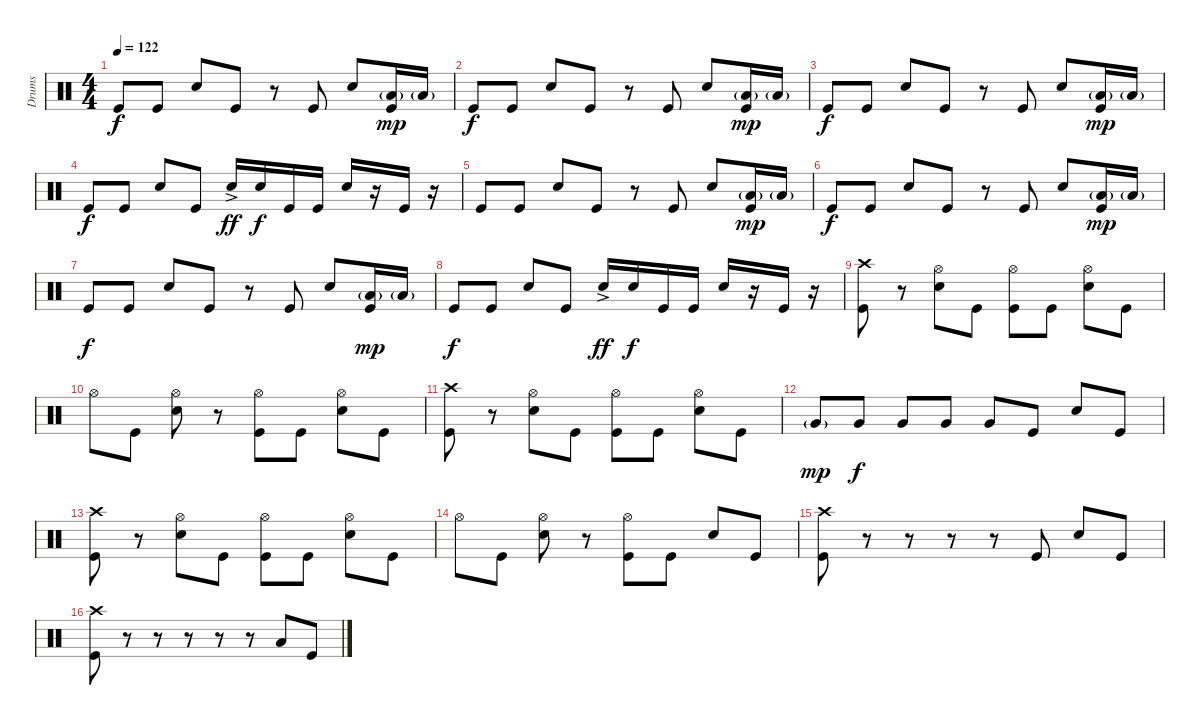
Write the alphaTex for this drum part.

\track ("Drums" "Drums") {instrument percussion}
\staff {score}
\articulation defaults
\ts (4 4)
\tempo 122
\clef neutral
\ks c "Kick (hit)".8{dy f} "Kick (hit)".8 "Snare (hit) 2".8 "Kick (hit)".8
r.8 "Kick (hit)".8 "Snare (hit) 2".8 ("Low Tom (hit)"{g} "Kick (hit)").16{dy mp} "Low Tom (hit)"{g}.16 |
"Kick (hit)".8{dy f} "Kick (hit)".8 "Snare (hit) 2".8 "Kick (hit)".8 r.8 "Kick (hit)".8 "Snare (hit) 2".8 ("Low Tom (hit)"{g} "Kick (hit)").16{dy mp} "Low Tom (hit)"{g}.16 |
"Kick (hit)".8{dy f} "Kick (hit)".8 "Snare (hit) 2".8 "Kick (hit)".8 r.8 "Kick (hit)".8 "Snare (hit) 2".8 ("Low Tom (hit)"{g} "Kick (hit)").16{dy mp} "Low Tom (hit)"{g}.16 |
"Kick (hit)".8{dy f} "Kick (hit)".8 "Snare (hit) 2".8 "Kick (hit)".8 "Snare (hit) 2"{ac}.16{dy ff} "Snare (hit) 2".16{dy f} "Kick (hit)".16 "Kick (hit)".16 "Snare (hit) 2".16 r.16 "Kick (hit)".16 r.16 |
"Kick (hit)".8 "Kick (hit)".8 "Snare (hit) 2".8 "Kick (hit)".8 r.8 "Kick (hit)".8 "Snare (hit) 2".8 ("Low Tom (hit)"{g} "Kick (hit)").16{dy mp} "Low Tom (hit)"{g}.16 |
"Kick (hit)".8{dy f} "Kick (hit)".8 "Snare (hit) 2".8 "Kick (hit)".8 r.8 "Kick (hit)".8 "Snare (hit) 2".8 ("Low Tom (hit)"{g} "Kick (hit)").16{dy mp} "Low Tom (hit)"{g}.16 |
"Kick (hit)".8{dy f} "Kick (hit)".8 "Snare (hit) 2".8 "Kick (hit)".8 r.8 "Kick (hit)".8 "Snare (hit) 2".8 ("Low Tom (hit)"{g} "Kick (hit)").16{dy mp} "Low Tom (hit)"{g}.16 |
"Kick (hit)".8{dy f} "Kick (hit)".8 "Snare (hit) 2".8 "Kick (hit)".8 "Snare (hit) 2"{ac}.16{dy ff} "Snare (hit) 2".16{dy f} "Kick (hit)".16 "Kick (hit)".16 "Snare (hit) 2".16 r.16 "Kick (hit)".16 r.16 |
("Crash high (hit)" "Kick (hit)").8 r.8 ("Hi-Hat (open)" "Snare (hit) 2").8 "Kick (hit)".8 ("Hi-Hat (open)" "Kick (hit)").8 "Kick (hit)".8 ("Hi-Hat (open)" "Snare (hit) 2").8 "Kick (hit)".8 |
"Hi-Hat (open)".8 "Kick (hit)".8 ("Hi-Hat (open)" "Snare (hit) 2").8 r.8 ("Hi-Hat (open)" "Kick (hit)").8 "Kick (hit)".8 ("Hi-Hat (open)" "Snare (hit) 2").8 "Kick (hit)".8 |
("Crash high (hit)" "Kick (hit)").8 r.8 ("Hi-Hat (open)" "Snare (hit) 2").8 "Kick (hit)".8 ("Hi-Hat (open)" "Kick (hit)").8 "Kick (hit)".8 ("Hi-Hat (open)" "Snare (hit) 2").8 "Kick (hit)".8 |
"Very Low Tom (hit)"{g}.8{dy mp} "Very Low Tom (hit)".8{dy f} "Very Low Tom (hit)".8 "Very Low Tom (hit)".8 "Very Low Tom (hit)".8 "Kick (hit)".8 "Snare (hit) 2".8 "Kick (hit)".8 |
("Crash high (hit)" "Kick (hit)").8 r.8 ("Hi-Hat (open)" "Snare (hit) 2").8 "Kick (hit)".8 ("Hi-Hat (open)" "Kick (hit)").8 "Kick (hit)".8 ("Hi-Hat (open)" "Snare (hit) 2").8 "Kick (hit)".8 |
"Hi-Hat (open)".8 "Kick (hit)".8 ("Hi-Hat (open)" "Snare (hit) 2").8 r.8 ("Hi-Hat (open)" "Kick (hit)").8 "Kick (hit)".8 "Snare (hit) 2".8 "Kick (hit)".8 |
("Crash high (hit)" "Kick (hit)").8 r.8 r.8 r.8 r.8 "Kick (hit)".8 "Snare (hit) 2".8 "Kick (hit)".8 |
("Crash high (hit)" "Kick (hit)").8 r.8 r.8 r.8 r.8 r.8 "Low Tom (hit)".8 "Kick (hit)".8
